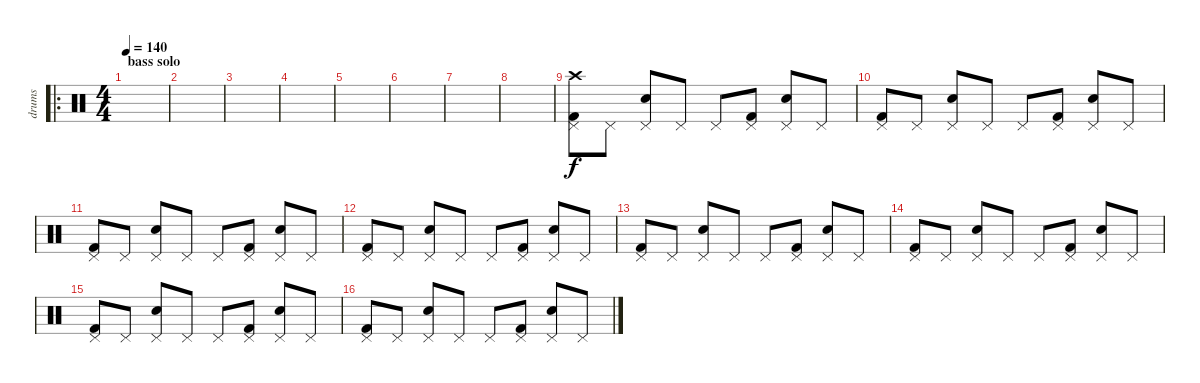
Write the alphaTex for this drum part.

\track ("drums" "drums") {instrument percussion}
\staff {score}
\articulation defaults
\ro
\ts (4 4)
\section ("" "bass solo")
\tempo 140
\clef neutral
\ks c
|
|
|
|
|
|
|
|
("Kick (hit) 2" "Pedal Hi-Hat (hit)" "Crash high (hit)").8 "Pedal Hi-Hat (hit)".8 ("Snare (hit) 2" "Pedal Hi-Hat (hit)").8 "Pedal Hi-Hat (hit)".8 "Pedal Hi-Hat (hit)".8 ("Kick (hit) 2" "Pedal Hi-Hat (hit)").8 ("Snare (hit) 2" "Pedal Hi-Hat (hit)").8 "Pedal Hi-Hat (hit)".8 |
("Kick (hit) 2" "Pedal Hi-Hat (hit)").8 "Pedal Hi-Hat (hit)".8 ("Snare (hit) 2" "Pedal Hi-Hat (hit)").8 "Pedal Hi-Hat (hit)".8 "Pedal Hi-Hat (hit)".8 ("Kick (hit) 2" "Pedal Hi-Hat (hit)").8 ("Snare (hit) 2" "Pedal Hi-Hat (hit)").8 "Pedal Hi-Hat (hit)".8 |
("Kick (hit) 2" "Pedal Hi-Hat (hit)").8 "Pedal Hi-Hat (hit)".8 ("Snare (hit) 2" "Pedal Hi-Hat (hit)").8 "Pedal Hi-Hat (hit)".8 "Pedal Hi-Hat (hit)".8 ("Kick (hit) 2" "Pedal Hi-Hat (hit)").8 ("Snare (hit) 2" "Pedal Hi-Hat (hit)").8 "Pedal Hi-Hat (hit)".8 |
("Kick (hit) 2" "Pedal Hi-Hat (hit)").8 "Pedal Hi-Hat (hit)".8 ("Snare (hit) 2" "Pedal Hi-Hat (hit)").8 "Pedal Hi-Hat (hit)".8 "Pedal Hi-Hat (hit)".8 ("Kick (hit) 2" "Pedal Hi-Hat (hit)").8 ("Snare (hit) 2" "Pedal Hi-Hat (hit)").8 "Pedal Hi-Hat (hit)".8 |
("Kick (hit) 2" "Pedal Hi-Hat (hit)").8 "Pedal Hi-Hat (hit)".8 ("Snare (hit) 2" "Pedal Hi-Hat (hit)").8 "Pedal Hi-Hat (hit)".8 "Pedal Hi-Hat (hit)".8 ("Kick (hit) 2" "Pedal Hi-Hat (hit)").8 ("Snare (hit) 2" "Pedal Hi-Hat (hit)").8 "Pedal Hi-Hat (hit)".8 |
("Kick (hit) 2" "Pedal Hi-Hat (hit)").8 "Pedal Hi-Hat (hit)".8 ("Snare (hit) 2" "Pedal Hi-Hat (hit)").8 "Pedal Hi-Hat (hit)".8 "Pedal Hi-Hat (hit)".8 ("Kick (hit) 2" "Pedal Hi-Hat (hit)").8 ("Snare (hit) 2" "Pedal Hi-Hat (hit)").8 "Pedal Hi-Hat (hit)".8 |
("Kick (hit) 2" "Pedal Hi-Hat (hit)").8 "Pedal Hi-Hat (hit)".8 ("Snare (hit) 2" "Pedal Hi-Hat (hit)").8 "Pedal Hi-Hat (hit)".8 "Pedal Hi-Hat (hit)".8 ("Kick (hit) 2" "Pedal Hi-Hat (hit)").8 ("Snare (hit) 2" "Pedal Hi-Hat (hit)").8 "Pedal Hi-Hat (hit)".8 |
("Kick (hit) 2" "Pedal Hi-Hat (hit)").8 "Pedal Hi-Hat (hit)".8 ("Snare (hit) 2" "Pedal Hi-Hat (hit)").8 "Pedal Hi-Hat (hit)".8 "Pedal Hi-Hat (hit)".8 ("Kick (hit) 2" "Pedal Hi-Hat (hit)").8 ("Snare (hit) 2" "Pedal Hi-Hat (hit)").8 "Pedal Hi-Hat (hit)".8
